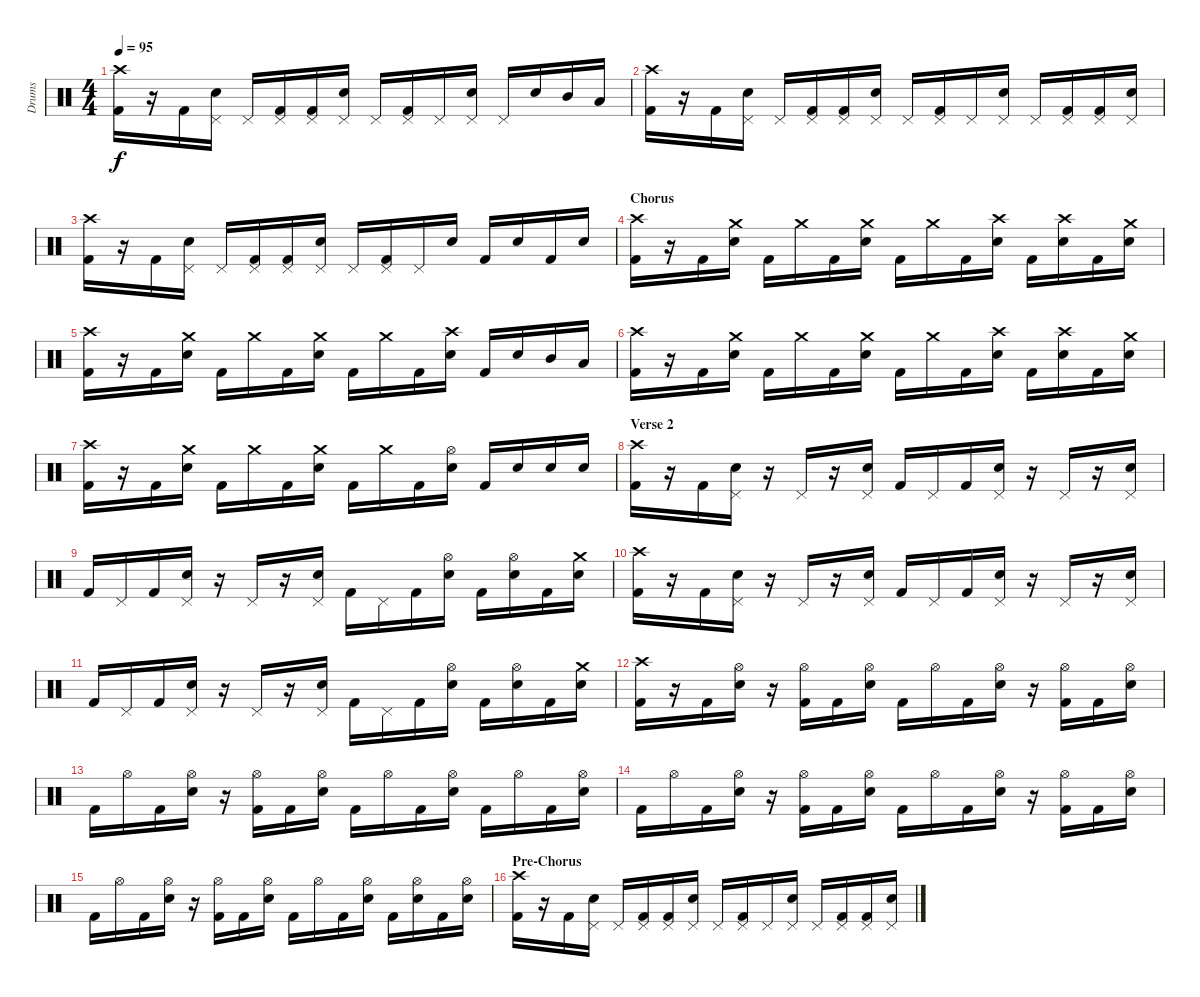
\track ("Drums" "Drums") {instrument percussion}
\staff {score}
\articulation defaults
\ts (4 4)
\tempo 95
\clef neutral
\ks c
("Crash high (hit)" "Kick (hit) 2").16{dy f} r.16 "Kick (hit) 2".16 ("Pedal Hi-Hat (hit)" "Electric Snare (hit)").16 "Pedal Hi-Hat (hit)".16 ("Pedal Hi-Hat (hit)" "Kick (hit) 2").16 ("Pedal Hi-Hat (hit)" "Kick (hit) 2").16 ("Pedal Hi-Hat (hit)" "Electric Snare (hit)").16 "Pedal Hi-Hat (hit)".16 ("Pedal Hi-Hat (hit)" "Kick (hit) 2").16 "Pedal Hi-Hat (hit)".16 ("Pedal Hi-Hat (hit)" "Electric Snare (hit)").16 "Pedal Hi-Hat (hit)".16 "Electric Snare (hit)".16 "Mid Tom (hit)".16 "Low Tom (hit)".16 |
("Crash high (hit)" "Kick (hit) 2").16 r.16 "Kick (hit) 2".16 ("Pedal Hi-Hat (hit)" "Electric Snare (hit)").16 "Pedal Hi-Hat (hit)".16 ("Pedal Hi-Hat (hit)" "Kick (hit) 2").16 ("Pedal Hi-Hat (hit)" "Kick (hit) 2").16 ("Pedal Hi-Hat (hit)" "Electric Snare (hit)").16 "Pedal Hi-Hat (hit)".16 ("Pedal Hi-Hat (hit)" "Kick (hit) 2").16 "Pedal Hi-Hat (hit)".16 ("Pedal Hi-Hat (hit)" "Electric Snare (hit)").16 "Pedal Hi-Hat (hit)".16 ("Pedal Hi-Hat (hit)" "Kick (hit) 2").16 ("Pedal Hi-Hat (hit)" "Kick (hit) 2").16 ("Pedal Hi-Hat (hit)" "Electric Snare (hit)").16 |
("Crash high (hit)" "Kick (hit) 2").16 r.16 "Kick (hit) 2".16 ("Pedal Hi-Hat (hit)" "Electric Snare (hit)").16 "Pedal Hi-Hat (hit)".16 ("Pedal Hi-Hat (hit)" "Kick (hit) 2").16 ("Pedal Hi-Hat (hit)" "Kick (hit) 2").16 ("Pedal Hi-Hat (hit)" "Electric Snare (hit)").16 "Pedal Hi-Hat (hit)".16 ("Pedal Hi-Hat (hit)" "Kick (hit) 2").16 "Pedal Hi-Hat (hit)".16 "Electric Snare (hit)".16 "Kick (hit) 2".16 "Electric Snare (hit)".16 "Kick (hit) 2".16 "Electric Snare (hit)".16 |
\section ("" "Chorus")
("Crash high (hit)" "Kick (hit) 2").16 r.16 "Kick (hit) 2".16 ("Crash medium (hit)" "Electric Snare (hit)").16 "Kick (hit) 2".16 "Crash medium (hit)".16 "Kick (hit) 2".16 ("Crash medium (hit)" "Electric Snare (hit)").16 "Kick (hit) 2".16 "Crash medium (hit)".16 "Kick (hit) 2".16 ("Crash high (hit)" "Electric Snare (hit)").16 "Kick (hit) 2".16 ("Crash high (hit)" "Electric Snare (hit)").16 "Kick (hit) 2".16 ("Crash medium (hit)" "Electric Snare (hit)").16 |
("Crash high (hit)" "Kick (hit) 2").16 r.16 "Kick (hit) 2".16 ("Crash medium (hit)" "Electric Snare (hit)").16 "Kick (hit) 2".16 "Crash medium (hit)".16 "Kick (hit) 2".16 ("Crash medium (hit)" "Electric Snare (hit)").16 "Kick (hit) 2".16 "Crash medium (hit)".16 "Kick (hit) 2".16 ("Crash high (hit)" "Electric Snare (hit)").16 "Kick (hit) 2".16 "Electric Snare (hit)".16 "Mid Tom (hit)".16 "Low Tom (hit)".16 |
("Crash high (hit)" "Kick (hit) 2").16 r.16 "Kick (hit) 2".16 ("Crash medium (hit)" "Electric Snare (hit)").16 "Kick (hit) 2".16 "Crash medium (hit)".16 "Kick (hit) 2".16 ("Crash medium (hit)" "Electric Snare (hit)").16 "Kick (hit) 2".16 "Crash medium (hit)".16 "Kick (hit) 2".16 ("Crash high (hit)" "Electric Snare (hit)").16 "Kick (hit) 2".16 ("Crash high (hit)" "Electric Snare (hit)").16 "Kick (hit) 2".16 ("Crash medium (hit)" "Electric Snare (hit)").16 |
("Crash high (hit)" "Kick (hit) 2").16 r.16 "Kick (hit) 2".16 ("Crash medium (hit)" "Electric Snare (hit)").16 "Kick (hit) 2".16 "Crash medium (hit)".16 "Kick (hit) 2".16 ("Crash medium (hit)" "Electric Snare (hit)").16 "Kick (hit) 2".16 "Crash medium (hit)".16 "Kick (hit) 2".16 ("Hi-Hat (open)" "Electric Snare (hit)").16 "Kick (hit) 2".16 "Electric Snare (hit)".16 "Electric Snare (hit)".16 "Electric Snare (hit)".16 |
\section ("" "Verse 2")
("Crash high (hit)" "Kick (hit) 2").16 r.16 "Kick (hit) 2".16 ("Pedal Hi-Hat (hit)" "Electric Snare (hit)").16 r.16 "Pedal Hi-Hat (hit)".16 r.16 ("Pedal Hi-Hat (hit)" "Electric Snare (hit)").16 "Kick (hit) 2".16 "Pedal Hi-Hat (hit)".16 "Kick (hit) 2".16 ("Pedal Hi-Hat (hit)" "Electric Snare (hit)").16 r.16 "Pedal Hi-Hat (hit)".16 r.16 ("Pedal Hi-Hat (hit)" "Electric Snare (hit)").16 |
"Kick (hit) 2".16 "Pedal Hi-Hat (hit)".16 "Kick (hit) 2".16 ("Pedal Hi-Hat (hit)" "Electric Snare (hit)").16 r.16 "Pedal Hi-Hat (hit)".16 r.16 ("Pedal Hi-Hat (hit)" "Electric Snare (hit)").16 "Kick (hit) 2".16 "Pedal Hi-Hat (hit)".16 "Kick (hit) 2".16 ("Hi-Hat (open)" "Electric Snare (hit)").16 "Kick (hit) 2".16 ("Hi-Hat (open)" "Electric Snare (hit)").16 "Kick (hit) 2".16 ("Crash medium (hit)" "Electric Snare (hit)").16 |
("Crash high (hit)" "Kick (hit) 2").16 r.16 "Kick (hit) 2".16 ("Pedal Hi-Hat (hit)" "Electric Snare (hit)").16 r.16 "Pedal Hi-Hat (hit)".16 r.16 ("Pedal Hi-Hat (hit)" "Electric Snare (hit)").16 "Kick (hit) 2".16 "Pedal Hi-Hat (hit)".16 "Kick (hit) 2".16 ("Pedal Hi-Hat (hit)" "Electric Snare (hit)").16 r.16 "Pedal Hi-Hat (hit)".16 r.16 ("Pedal Hi-Hat (hit)" "Electric Snare (hit)").16 |
"Kick (hit) 2".16 "Pedal Hi-Hat (hit)".16 "Kick (hit) 2".16 ("Pedal Hi-Hat (hit)" "Electric Snare (hit)").16 r.16 "Pedal Hi-Hat (hit)".16 r.16 ("Pedal Hi-Hat (hit)" "Electric Snare (hit)").16 "Kick (hit) 2".16 "Pedal Hi-Hat (hit)".16 "Kick (hit) 2".16 ("Hi-Hat (open)" "Electric Snare (hit)").16 "Kick (hit) 2".16 ("Hi-Hat (open)" "Electric Snare (hit)").16 "Kick (hit) 2".16 ("Crash medium (hit)" "Electric Snare (hit)").16 |
("Crash high (hit)" "Kick (hit) 2").16 r.16 "Kick (hit) 2".16 ("Hi-Hat (open)" "Electric Snare (hit)").16 r.16 ("Hi-Hat (open)" "Kick (hit) 2").16 "Kick (hit) 2".16 ("Hi-Hat (open)" "Electric Snare (hit)").16 "Kick (hit) 2".16 "Hi-Hat (open)".16 "Kick (hit) 2".16 ("Hi-Hat (open)" "Electric Snare (hit)").16 r.16 ("Hi-Hat (open)" "Kick (hit) 2").16 "Kick (hit) 2".16 ("Hi-Hat (open)" "Electric Snare (hit)").16 |
"Kick (hit) 2".16 "Hi-Hat (open)".16 "Kick (hit) 2".16 ("Hi-Hat (open)" "Electric Snare (hit)").16 r.16 ("Hi-Hat (open)" "Kick (hit) 2").16 "Kick (hit) 2".16 ("Hi-Hat (open)" "Electric Snare (hit)").16 "Kick (hit) 2".16 "Hi-Hat (open)".16 "Kick (hit) 2".16 ("Hi-Hat (open)" "Electric Snare (hit)").16 "Kick (hit) 2".16 "Hi-Hat (open)".16 "Kick (hit) 2".16 ("Hi-Hat (open)" "Electric Snare (hit)").16 |
"Kick (hit) 2".16 "Hi-Hat (open)".16 "Kick (hit) 2".16 ("Hi-Hat (open)" "Electric Snare (hit)").16 r.16 ("Hi-Hat (open)" "Kick (hit) 2").16 "Kick (hit) 2".16 ("Hi-Hat (open)" "Electric Snare (hit)").16 "Kick (hit) 2".16 "Hi-Hat (open)".16 "Kick (hit) 2".16 ("Hi-Hat (open)" "Electric Snare (hit)").16 r.16 ("Hi-Hat (open)" "Kick (hit) 2").16 "Kick (hit) 2".16 ("Hi-Hat (open)" "Electric Snare (hit)").16 |
"Kick (hit) 2".16 "Hi-Hat (open)".16 "Kick (hit) 2".16 ("Hi-Hat (open)" "Electric Snare (hit)").16 r.16 ("Hi-Hat (open)" "Kick (hit) 2").16 "Kick (hit) 2".16 ("Hi-Hat (open)" "Electric Snare (hit)").16 "Kick (hit) 2".16 "Hi-Hat (open)".16 "Kick (hit) 2".16 ("Hi-Hat (open)" "Electric Snare (hit)").16 "Kick (hit) 2".16 ("Hi-Hat (open)" "Electric Snare (hit)").16 "Kick (hit) 2".16 ("Hi-Hat (open)" "Electric Snare (hit)").16 |
\section ("" "Pre-Chorus")
("Crash high (hit)" "Kick (hit) 2").16 r.16 "Kick (hit) 2".16 ("Pedal Hi-Hat (hit)" "Electric Snare (hit)").16 "Pedal Hi-Hat (hit)".16 ("Pedal Hi-Hat (hit)" "Kick (hit) 2").16 ("Pedal Hi-Hat (hit)" "Kick (hit) 2").16 ("Pedal Hi-Hat (hit)" "Electric Snare (hit)").16 "Pedal Hi-Hat (hit)".16 ("Pedal Hi-Hat (hit)" "Kick (hit) 2").16 "Pedal Hi-Hat (hit)".16 ("Pedal Hi-Hat (hit)" "Electric Snare (hit)").16 "Pedal Hi-Hat (hit)".16 ("Pedal Hi-Hat (hit)" "Kick (hit) 2").16 ("Pedal Hi-Hat (hit)" "Kick (hit) 2").16 ("Pedal Hi-Hat (hit)" "Electric Snare (hit)").16
